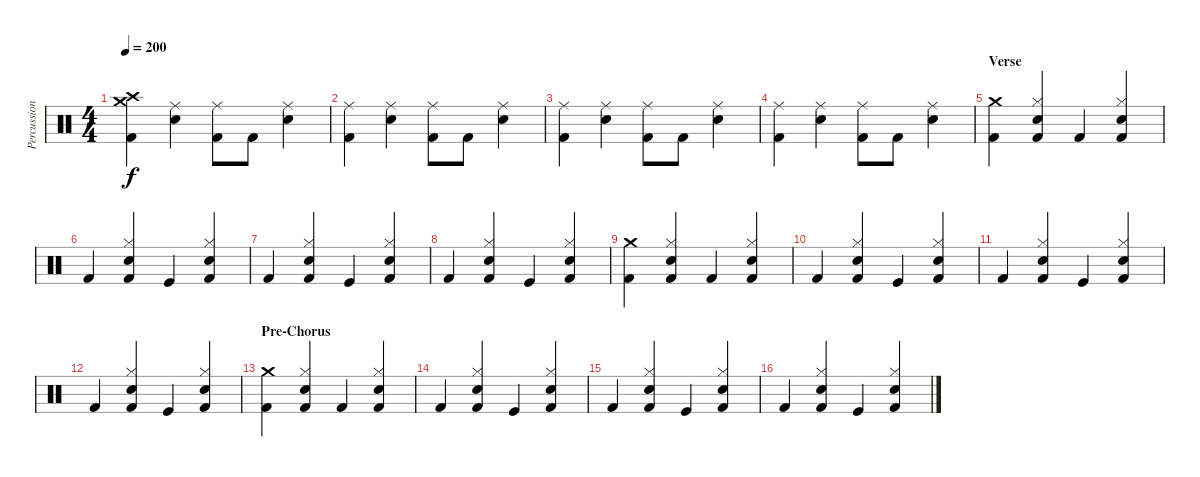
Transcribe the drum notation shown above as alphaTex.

\track ("Percussion" "Percussion") {instrument percussion}
\staff {score}
\articulation defaults
\ts (4 4)
\tempo 200
\clef neutral
\ks c
("Crash medium (hit)" "Crash high (hit)" "Kick (hit) 2").4{dy f} ("Ride (middle)" "Electric Snare (hit)").4 ("Ride (middle)" "Kick (hit) 2").8 "Kick (hit) 2".8 ("Ride (middle)" "Electric Snare (hit)").4 |
("Ride (middle)" "Kick (hit) 2").4 ("Ride (middle)" "Electric Snare (hit)").4 ("Ride (middle)" "Kick (hit) 2").8 "Kick (hit) 2".8 ("Ride (middle)" "Electric Snare (hit)").4 |
("Ride (middle)" "Kick (hit) 2").4 ("Ride (middle)" "Electric Snare (hit)").4 ("Ride (middle)" "Kick (hit) 2").8 "Kick (hit) 2".8 ("Ride (middle)" "Electric Snare (hit)").4 |
("Ride (middle)" "Kick (hit) 2").4 ("Ride (middle)" "Electric Snare (hit)").4 ("Ride (middle)" "Kick (hit) 2").8 "Kick (hit) 2".8 ("Ride (middle)" "Electric Snare (hit)").4 |
\section ("" "Verse")
("Crash medium (hit)" "Kick (hit) 2").4 ("Hi-Hat (closed)" "Snare (hit) 2" "Kick (hit) 2").4 "Kick (hit) 2".4 ("Hi-Hat (closed)" "Snare (hit) 2" "Kick (hit) 2").4 |
"Kick (hit) 2".4 ("Hi-Hat (closed)" "Snare (hit) 2" "Kick (hit) 2").4 "Kick (hit)".4 ("Hi-Hat (closed)" "Snare (hit) 2" "Kick (hit) 2").4 |
"Kick (hit) 2".4 ("Hi-Hat (closed)" "Snare (hit) 2" "Kick (hit) 2").4 "Kick (hit)".4 ("Hi-Hat (closed)" "Snare (hit) 2" "Kick (hit) 2").4 |
"Kick (hit) 2".4 ("Hi-Hat (closed)" "Snare (hit) 2" "Kick (hit) 2").4 "Kick (hit)".4 ("Hi-Hat (closed)" "Snare (hit) 2" "Kick (hit) 2").4 |
("Crash medium (hit)" "Kick (hit) 2").4 ("Hi-Hat (closed)" "Snare (hit) 2" "Kick (hit) 2").4 "Kick (hit) 2".4 ("Hi-Hat (closed)" "Snare (hit) 2" "Kick (hit) 2").4 |
"Kick (hit) 2".4 ("Hi-Hat (closed)" "Snare (hit) 2" "Kick (hit) 2").4 "Kick (hit)".4 ("Hi-Hat (closed)" "Snare (hit) 2" "Kick (hit) 2").4 |
"Kick (hit) 2".4 ("Hi-Hat (closed)" "Snare (hit) 2" "Kick (hit) 2").4 "Kick (hit)".4 ("Hi-Hat (closed)" "Snare (hit) 2" "Kick (hit) 2").4 |
"Kick (hit) 2".4 ("Hi-Hat (closed)" "Snare (hit) 2" "Kick (hit) 2").4 "Kick (hit)".4 ("Hi-Hat (closed)" "Snare (hit) 2" "Kick (hit) 2").4 |
\section ("" "Pre-Chorus")
("Crash medium (hit)" "Kick (hit) 2").4 ("Hi-Hat (closed)" "Snare (hit) 2" "Kick (hit) 2").4 "Kick (hit) 2".4 ("Hi-Hat (closed)" "Snare (hit) 2" "Kick (hit) 2").4 |
"Kick (hit) 2".4 ("Hi-Hat (closed)" "Snare (hit) 2" "Kick (hit) 2").4 "Kick (hit)".4 ("Hi-Hat (closed)" "Snare (hit) 2" "Kick (hit) 2").4 |
"Kick (hit) 2".4 ("Hi-Hat (closed)" "Snare (hit) 2" "Kick (hit) 2").4 "Kick (hit)".4 ("Hi-Hat (closed)" "Snare (hit) 2" "Kick (hit) 2").4 |
"Kick (hit) 2".4 ("Hi-Hat (closed)" "Snare (hit) 2" "Kick (hit) 2").4 "Kick (hit)".4 ("Hi-Hat (closed)" "Snare (hit) 2" "Kick (hit) 2").4
